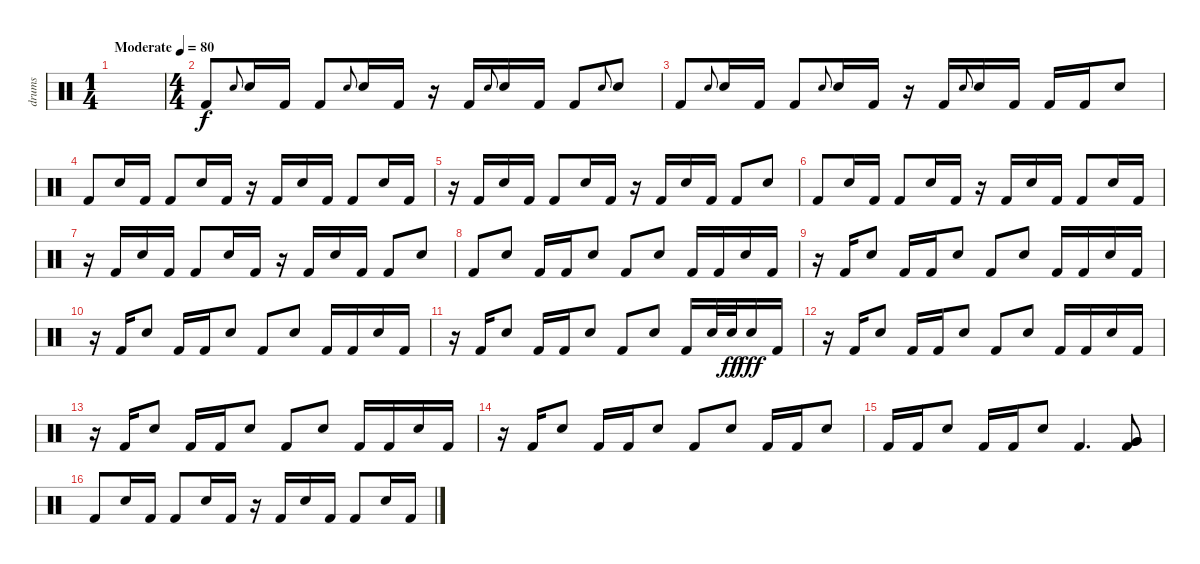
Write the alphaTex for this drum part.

\track ("drums" "drums") {instrument percussion}
\staff {score}
\articulation defaults
\ts (1 4)
\tempo (80 "Moderate")
\clef neutral
\ks c
|
\ts (4 4)
"Kick (hit) 2".8 "Electric Snare (hit)".8{gr onbeat} "Electric Snare (hit)".16 "Kick (hit) 2".16 "Kick (hit) 2".8 "Electric Snare (hit)".8{gr onbeat} "Electric Snare (hit)".16 "Kick (hit) 2".16 r.16 "Kick (hit) 2".16 "Electric Snare (hit)".8{gr onbeat} "Electric Snare (hit)".16 "Kick (hit) 2".16 "Kick (hit) 2".8 "Electric Snare (hit)".8{gr onbeat} "Electric Snare (hit)".8 |
"Kick (hit) 2".8 "Electric Snare (hit)".8{gr onbeat} "Electric Snare (hit)".16 "Kick (hit) 2".16 "Kick (hit) 2".8 "Electric Snare (hit)".8{gr onbeat} "Electric Snare (hit)".16 "Kick (hit) 2".16 r.16 "Kick (hit) 2".16 "Electric Snare (hit)".8{gr onbeat} "Electric Snare (hit)".16 "Kick (hit) 2".16 "Kick (hit) 2".16 "Kick (hit) 2".16 "Electric Snare (hit)".8 |
"Kick (hit) 2".8 "Electric Snare (hit)".16 "Kick (hit) 2".16 "Kick (hit) 2".8 "Electric Snare (hit)".16 "Kick (hit) 2".16 r.16 "Kick (hit) 2".16 "Electric Snare (hit)".16 "Kick (hit) 2".16 "Kick (hit) 2".8 "Electric Snare (hit)".16 "Kick (hit) 2".16 |
r.16 "Kick (hit) 2".16 "Electric Snare (hit)".16 "Kick (hit) 2".16 "Kick (hit) 2".8 "Electric Snare (hit)".16 "Kick (hit) 2".16 r.16 "Kick (hit) 2".16 "Electric Snare (hit)".16 "Kick (hit) 2".16 "Kick (hit) 2".8 "Electric Snare (hit)".8 |
"Kick (hit) 2".8 "Electric Snare (hit)".16 "Kick (hit) 2".16 "Kick (hit) 2".8 "Electric Snare (hit)".16 "Kick (hit) 2".16 r.16 "Kick (hit) 2".16 "Electric Snare (hit)".16 "Kick (hit) 2".16 "Kick (hit) 2".8 "Electric Snare (hit)".16 "Kick (hit) 2".16 |
r.16 "Kick (hit) 2".16 "Electric Snare (hit)".16 "Kick (hit) 2".16 "Kick (hit) 2".8 "Electric Snare (hit)".16 "Kick (hit) 2".16 r.16 "Kick (hit) 2".16 "Electric Snare (hit)".16 "Kick (hit) 2".16 "Kick (hit) 2".8 "Electric Snare (hit)".8 |
"Kick (hit) 2".8 "Electric Snare (hit)".8 "Kick (hit) 2".16 "Kick (hit) 2".16 "Electric Snare (hit)".8 "Kick (hit) 2".8 "Electric Snare (hit)".8 "Kick (hit) 2".16 "Kick (hit) 2".16 "Electric Snare (hit)".16 "Kick (hit) 2".16 |
r.16 "Kick (hit) 2".16 "Electric Snare (hit)".8 "Kick (hit) 2".16 "Kick (hit) 2".16 "Electric Snare (hit)".8 "Kick (hit) 2".8 "Electric Snare (hit)".8 "Kick (hit) 2".16 "Kick (hit) 2".16 "Electric Snare (hit)".16 "Kick (hit) 2".16 |
r.16 "Kick (hit) 2".16 "Electric Snare (hit)".8 "Kick (hit) 2".16 "Kick (hit) 2".16 "Electric Snare (hit)".8 "Kick (hit) 2".8 "Electric Snare (hit)".8 "Kick (hit) 2".16 "Kick (hit) 2".16 "Electric Snare (hit)".16 "Kick (hit) 2".16 |
r.16 "Kick (hit) 2".16 "Electric Snare (hit)".8 "Kick (hit) 2".16 "Kick (hit) 2".16 "Electric Snare (hit)".8 "Kick (hit) 2".8 "Electric Snare (hit)".8 "Kick (hit) 2".16 "Electric Snare (hit)".32 "Electric Snare (hit)".32{dy ff} "Electric Snare (hit)".16{dy fff} "Kick (hit) 2".16 |
r.16 "Kick (hit) 2".16 "Electric Snare (hit)".8 "Kick (hit) 2".16 "Kick (hit) 2".16 "Electric Snare (hit)".8 "Kick (hit) 2".8 "Electric Snare (hit)".8 "Kick (hit) 2".16 "Kick (hit) 2".16 "Electric Snare (hit)".16 "Kick (hit) 2".16 |
r.16 "Kick (hit) 2".16 "Electric Snare (hit)".8 "Kick (hit) 2".16 "Kick (hit) 2".16 "Electric Snare (hit)".8 "Kick (hit) 2".8 "Electric Snare (hit)".8 "Kick (hit) 2".16 "Kick (hit) 2".16 "Electric Snare (hit)".16 "Kick (hit) 2".16 |
r.16 "Kick (hit) 2".16 "Electric Snare (hit)".8 "Kick (hit) 2".16 "Kick (hit) 2".16 "Electric Snare (hit)".8 "Kick (hit) 2".8 "Electric Snare (hit)".8 "Kick (hit) 2".16 "Kick (hit) 2".16 "Electric Snare (hit)".8 |
"Kick (hit) 2".16 "Kick (hit) 2".16 "Electric Snare (hit)".8 "Kick (hit) 2".16 "Kick (hit) 2".16 "Electric Snare (hit)".8 "Kick (hit) 2".4{d} ("Very Low Tom (hit)" "Very Low Tom (hit)" "Kick (hit) 2").8 |
"Kick (hit) 2".8 "Electric Snare (hit)".16 "Kick (hit) 2".16 "Kick (hit) 2".8 "Electric Snare (hit)".16 "Kick (hit) 2".16 r.16 "Kick (hit) 2".16 "Electric Snare (hit)".16 "Kick (hit) 2".16 "Kick (hit) 2".8 "Electric Snare (hit)".16 "Kick (hit) 2".16
